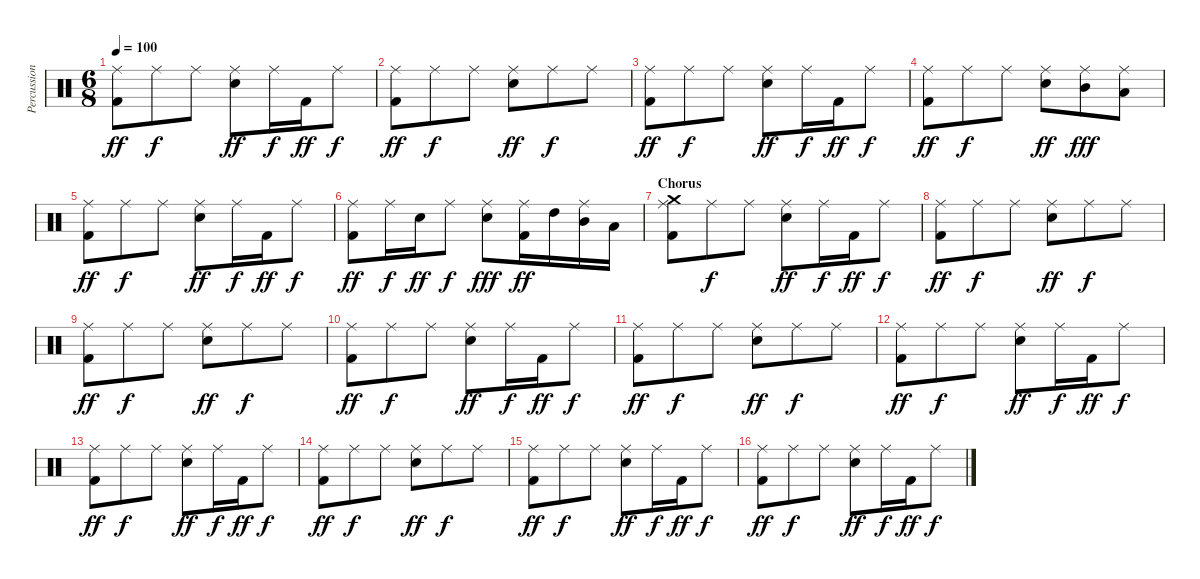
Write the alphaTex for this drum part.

\track ("Percussion" "Percussion") {instrument percussion}
\staff {score}
\articulation defaults
\ts (6 8)
\tempo 100
\clef neutral
\ks c
("Ride (middle)" "Kick (hit) 2").8{dy ff} "Ride (middle)".8{dy f} "Ride (middle)".8 ("Ride (middle)" "Electric Snare (hit)").8{dy ff} "Ride (middle)".16{dy f} "Kick (hit) 2".16{dy ff} "Ride (middle)".8{dy f} |
("Ride (middle)" "Kick (hit) 2").8{dy ff} "Ride (middle)".8{dy f} "Ride (middle)".8 ("Ride (middle)" "Electric Snare (hit)").8{dy ff} "Ride (middle)".8{dy f} "Ride (middle)".8 |
("Kick (hit) 2" "Ride (middle)").8{dy ff} "Ride (middle)".8{dy f} "Ride (middle)".8 ("Electric Snare (hit)" "Ride (middle)").8{dy ff} "Ride (middle)".16{dy f} "Kick (hit) 2".16{dy ff} "Ride (middle)".8{dy f} |
("Ride (middle)" "Kick (hit) 2").8{dy ff} "Ride (middle)".8{dy f} "Ride (middle)".8 ("Ride (middle)" "Electric Snare (hit)").8{dy ff} ("Mid Tom (hit)" "Ride (middle)").8{dy fff} ("Low Tom (hit)" "Ride (middle)").8 |
("Ride (middle)" "Kick (hit) 2").8{dy ff} "Ride (middle)".8{dy f} "Ride (middle)".8 ("Ride (middle)" "Electric Snare (hit)").8{dy ff} "Ride (middle)".16{dy f} "Kick (hit) 2".16{dy ff} "Ride (middle)".8{dy f} |
("Ride (middle)" "Kick (hit) 2").8{dy ff} "Ride (middle)".16{dy f} "Electric Snare (hit)".16{dy ff} "Ride (middle)".8{dy f} ("Ride (middle)" "Electric Snare (hit)").8{dy fff} ("Kick (hit) 2" "Ride (middle)").16{dy ff} "High Tom (hit)".16 ("Mid Tom (hit)" "Ride (middle)").16 "Low Tom (hit)".16 |
\section ("" "Chorus")
("Crash medium (hit)" "Ride (middle)" "Kick (hit) 2").8 "Ride (middle)".8{dy f} "Ride (middle)".8 ("Ride (middle)" "Electric Snare (hit)").8{dy ff} "Ride (middle)".16{dy f} "Kick (hit) 2".16{dy ff} "Ride (middle)".8{dy f} |
("Ride (middle)" "Kick (hit) 2").8{dy ff} "Ride (middle)".8{dy f} "Ride (middle)".8 ("Ride (middle)" "Electric Snare (hit)").8{dy ff} "Ride (middle)".8{dy f} "Ride (middle)".8 |
("Kick (hit) 2" "Ride (middle)").8{dy ff} "Ride (middle)".8{dy f} "Ride (middle)".8 ("Electric Snare (hit)" "Ride (middle)").8{dy ff} "Ride (middle)".8{dy f} "Ride (middle)".8 |
("Kick (hit) 2" "Ride (middle)").8{dy ff} "Ride (middle)".8{dy f} "Ride (middle)".8 ("Electric Snare (hit)" "Ride (middle)").8{dy ff} "Ride (middle)".16{dy f} "Kick (hit) 2".16{dy ff} "Ride (middle)".8{dy f} |
("Kick (hit) 2" "Ride (middle)").8{dy ff} "Ride (middle)".8{dy f} "Ride (middle)".8 ("Electric Snare (hit)" "Ride (middle)").8{dy ff} "Ride (middle)".8{dy f} "Ride (middle)".8 |
("Ride (middle)" "Kick (hit) 2").8{dy ff} "Ride (middle)".8{dy f} "Ride (middle)".8 ("Ride (middle)" "Electric Snare (hit)").8{dy ff} "Ride (middle)".16{dy f} "Kick (hit) 2".16{dy ff} "Ride (middle)".8{dy f} |
("Kick (hit) 2" "Ride (middle)").8{dy ff} "Ride (middle)".8{dy f} "Ride (middle)".8 ("Electric Snare (hit)" "Ride (middle)").8{dy ff} "Ride (middle)".16{dy f} "Kick (hit) 2".16{dy ff} "Ride (middle)".8{dy f} |
("Kick (hit) 2" "Ride (middle)").8{dy ff} "Ride (middle)".8{dy f} "Ride (middle)".8 ("Electric Snare (hit)" "Ride (middle)").8{dy ff} "Ride (middle)".8{dy f} "Ride (middle)".8 |
("Ride (middle)" "Kick (hit) 2").8{dy ff} "Ride (middle)".8{dy f} "Ride (middle)".8 ("Ride (middle)" "Electric Snare (hit)").8{dy ff} "Ride (middle)".16{dy f} "Kick (hit) 2".16{dy ff} "Ride (middle)".8{dy f} |
("Ride (middle)" "Kick (hit) 2").8{dy ff} "Ride (middle)".8{dy f} "Ride (middle)".8 ("Ride (middle)" "Electric Snare (hit)").8{dy ff} "Ride (middle)".16{dy f} "Kick (hit) 2".16{dy ff} "Ride (middle)".8{dy f}
